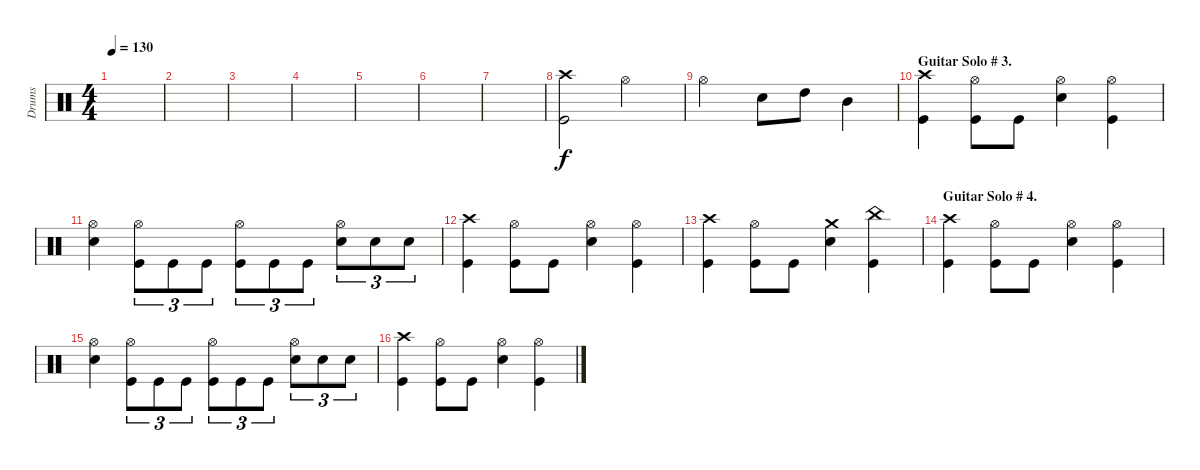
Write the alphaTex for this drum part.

\track ("Drums" "Drums") {instrument percussion}
\staff {score}
\articulation defaults
\ts (4 4)
\tempo 130
\clef neutral
\ks c
|
|
|
|
|
|
|
("Crash high (hit)" "Kick (hit)").2 "Hi-Hat (open)".2 |
"Hi-Hat (open)".2 "Snare (hit) 2".8 "High Tom (hit)".8 "Mid Tom (hit)".4 |
\section ("" "Guitar Solo # 3.")
("Crash high (hit)" "Kick (hit)").4 ("Hi-Hat (open)" "Kick (hit)").8 "Kick (hit)".8 ("Hi-Hat (open)" "Snare (hit) 2").4 ("Hi-Hat (open)" "Kick (hit)").4 |
("Hi-Hat (open)" "Snare (hit) 2").4 ("Hi-Hat (open)" "Kick (hit)").8{tu (3 2)} "Kick (hit)".8{tu (3 2)} "Kick (hit)".8{tu (3 2)} ("Hi-Hat (open)" "Kick (hit)").8{tu (3 2)} "Kick (hit)".8{tu (3 2)} "Kick (hit)".8{tu (3 2)} ("Hi-Hat (open)" "Snare (hit) 2").8{tu (3 2)} "Snare (hit) 2".8{tu (3 2)} "Snare (hit) 2".8{tu (3 2)} |
("Crash high (hit)" "Kick (hit)").4 ("Hi-Hat (open)" "Kick (hit)").8 "Kick (hit)".8 ("Hi-Hat (open)" "Snare (hit) 2").4 ("Hi-Hat (open)" "Kick (hit)").4 |
("Crash high (hit)" "Kick (hit)").4 ("Hi-Hat (open)" "Kick (hit)").8 "Kick (hit)".8 ("Crash medium (hit)" "Snare (hit) 2").4 ("China (hit)" "Kick (hit)").4 |
\section ("" "Guitar Solo # 4.")
("Crash high (hit)" "Kick (hit)").4 ("Hi-Hat (open)" "Kick (hit)").8 "Kick (hit)".8 ("Hi-Hat (open)" "Snare (hit) 2").4 ("Hi-Hat (open)" "Kick (hit)").4 |
("Hi-Hat (open)" "Snare (hit) 2").4 ("Hi-Hat (open)" "Kick (hit)").8{tu (3 2)} "Kick (hit)".8{tu (3 2)} "Kick (hit)".8{tu (3 2)} ("Hi-Hat (open)" "Kick (hit)").8{tu (3 2)} "Kick (hit)".8{tu (3 2)} "Kick (hit)".8{tu (3 2)} ("Hi-Hat (open)" "Snare (hit) 2").8{tu (3 2)} "Snare (hit) 2".8{tu (3 2)} "Snare (hit) 2".8{tu (3 2)} |
("Crash high (hit)" "Kick (hit)").4 ("Hi-Hat (open)" "Kick (hit)").8 "Kick (hit)".8 ("Hi-Hat (open)" "Snare (hit) 2").4 ("Hi-Hat (open)" "Kick (hit)").4
